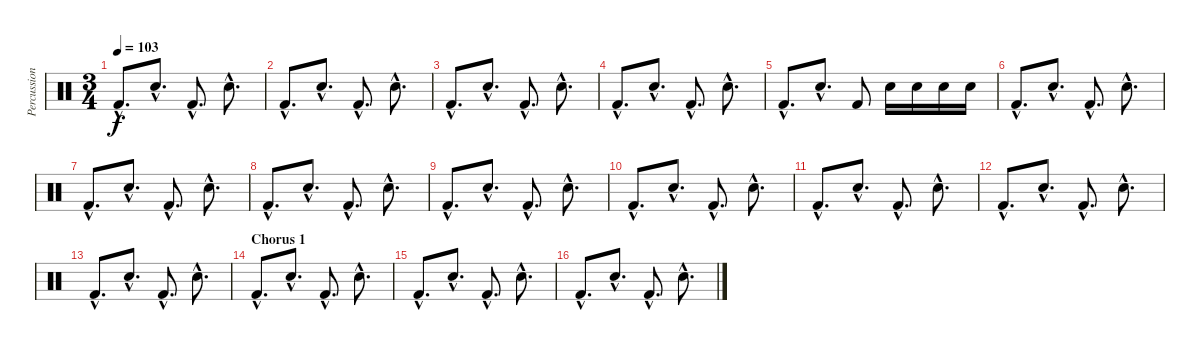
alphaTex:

\track ("Percussion" "Percussion") {instrument percussion}
\staff {score}
\articulation defaults
\ts (3 4)
\tempo 103
\clef neutral
\ks c "Kick (hit) 2"{hac}.8{d dy f} "Electric Snare (hit)"{hac}.8{d} "Kick (hit) 2"{hac}.8{d} "Electric Snare (hit)"{hac}.8{d}
|
"Kick (hit) 2"{hac}.8{d} "Electric Snare (hit)"{hac}.8{d} "Kick (hit) 2"{hac}.8{d} "Electric Snare (hit)"{hac}.8{d} |
"Kick (hit) 2"{hac}.8{d} "Electric Snare (hit)"{hac}.8{d} "Kick (hit) 2"{hac}.8{d} "Electric Snare (hit)"{hac}.8{d} |
"Kick (hit) 2"{hac}.8{d} "Electric Snare (hit)"{hac}.8{d} "Kick (hit) 2"{hac}.8{d} "Electric Snare (hit)"{hac}.8{d} |
"Kick (hit) 2"{hac}.8{d} "Electric Snare (hit)"{hac}.8{d} "Kick (hit) 2".8 "Electric Snare (hit)".16 "Electric Snare (hit)".16 "Electric Snare (hit)".16 "Electric Snare (hit)".16 |
"Kick (hit) 2"{hac}.8{d} "Electric Snare (hit)"{hac}.8{d} "Kick (hit) 2"{hac}.8{d} "Electric Snare (hit)"{hac}.8{d} |
"Kick (hit) 2"{hac}.8{d} "Electric Snare (hit)"{hac}.8{d} "Kick (hit) 2"{hac}.8{d} "Electric Snare (hit)"{hac}.8{d} |
"Kick (hit) 2"{hac}.8{d} "Electric Snare (hit)"{hac}.8{d} "Kick (hit) 2"{hac}.8{d} "Electric Snare (hit)"{hac}.8{d} |
"Kick (hit) 2"{hac}.8{d} "Electric Snare (hit)"{hac}.8{d} "Kick (hit) 2"{hac}.8{d} "Electric Snare (hit)"{hac}.8{d} |
"Kick (hit) 2"{hac}.8{d} "Electric Snare (hit)"{hac}.8{d} "Kick (hit) 2"{hac}.8{d} "Electric Snare (hit)"{hac}.8{d} |
"Kick (hit) 2"{hac}.8{d} "Electric Snare (hit)"{hac}.8{d} "Kick (hit) 2"{hac}.8{d} "Electric Snare (hit)"{hac}.8{d} |
"Kick (hit) 2"{hac}.8{d} "Electric Snare (hit)"{hac}.8{d} "Kick (hit) 2"{hac}.8{d} "Electric Snare (hit)"{hac}.8{d} |
"Kick (hit) 2"{hac}.8{d} "Electric Snare (hit)"{hac}.8{d} "Kick (hit) 2"{hac}.8{d} "Electric Snare (hit)"{hac}.8{d} |
\section ("" "Chorus 1")
"Kick (hit) 2"{hac}.8{d} "Electric Snare (hit)"{hac}.8{d} "Kick (hit) 2"{hac}.8{d} "Electric Snare (hit)"{hac}.8{d} |
"Kick (hit) 2"{hac}.8{d} "Electric Snare (hit)"{hac}.8{d} "Kick (hit) 2"{hac}.8{d} "Electric Snare (hit)"{hac}.8{d} |
"Kick (hit) 2"{hac}.8{d} "Electric Snare (hit)"{hac}.8{d} "Kick (hit) 2"{hac}.8{d} "Electric Snare (hit)"{hac}.8{d}
